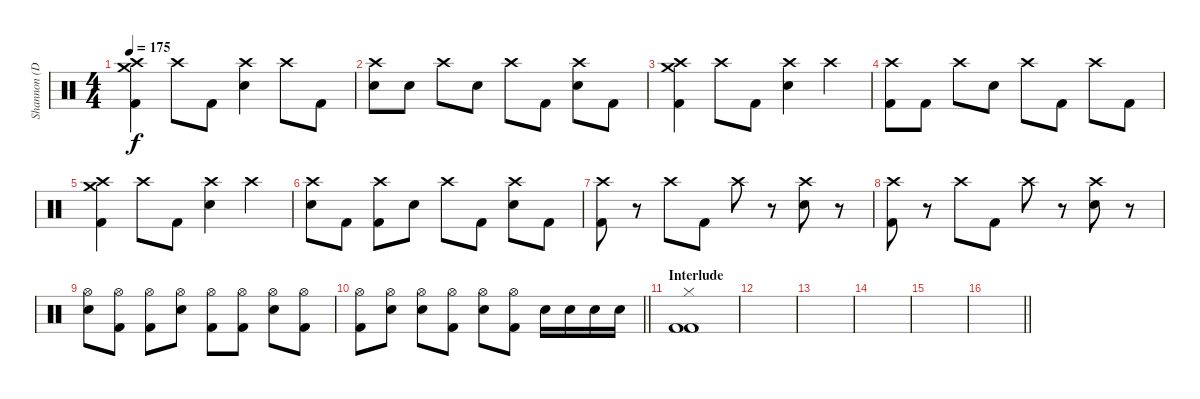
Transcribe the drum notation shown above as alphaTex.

\track ("Shannon (Drum)" "Shannon (D") {instrument percussion}
\staff {score}
\articulation defaults
\ts (4 4)
\tempo 175
\clef neutral
\ks c
("Crash high (hit)" "Crash medium (hit)" "Kick (hit) 2").4{dy f} "Crash high (hit)".8 "Kick (hit) 2".8 ("Crash high (hit)" "Electric Snare (hit)").4 "Crash high (hit)".8 "Kick (hit) 2".8 |
("Crash high (hit)" "Electric Snare (hit)").8 "Electric Snare (hit)".8 "Crash high (hit)".8 "Electric Snare (hit)".8 "Crash high (hit)".8 "Kick (hit) 2".8 ("Crash high (hit)" "Electric Snare (hit)").8 "Kick (hit) 2".8 |
("Crash high (hit)" "Crash medium (hit)" "Kick (hit) 2").4 "Crash high (hit)".8 "Kick (hit) 2".8 ("Crash high (hit)" "Electric Snare (hit)").4 "Crash high (hit)".4 |
("Crash high (hit)" "Kick (hit) 2").8 "Kick (hit) 2".8 "Crash high (hit)".8 "Electric Snare (hit)".8 "Crash high (hit)".8 "Kick (hit) 2".8 "Crash high (hit)".8 "Kick (hit) 2".8 |
("Crash high (hit)" "Crash medium (hit)" "Kick (hit) 2").4 "Crash high (hit)".8 "Kick (hit) 2".8 ("Crash high (hit)" "Electric Snare (hit)").4 "Crash high (hit)".4 |
("Crash high (hit)" "Electric Snare (hit)").8 "Kick (hit) 2".8 ("Crash high (hit)" "Kick (hit) 2").8 "Electric Snare (hit)".8 "Crash high (hit)".8 "Kick (hit) 2".8 ("Crash high (hit)" "Electric Snare (hit)").8 "Kick (hit) 2".8 |
("Crash high (hit)" "Kick (hit) 2").8 r.8 "Crash high (hit)".8 "Kick (hit) 2".8 "Crash high (hit)".8 r.8 ("Crash high (hit)" "Electric Snare (hit)").8 r.8 |
("Crash high (hit)" "Kick (hit) 2").8 r.8 "Crash high (hit)".8 "Kick (hit) 2".8 "Crash high (hit)".8 r.8 ("Crash high (hit)" "Electric Snare (hit)").8 r.8 |
("Hi-Hat (open)" "Electric Snare (hit)").8 ("Hi-Hat (open)" "Kick (hit) 2").8 ("Hi-Hat (open)" "Kick (hit) 2").8 ("Hi-Hat (open)" "Electric Snare (hit)").8 ("Hi-Hat (open)" "Kick (hit) 2").8 ("Hi-Hat (open)" "Kick (hit) 2").8 ("Hi-Hat (open)" "Electric Snare (hit)").8 ("Hi-Hat (open)" "Kick (hit) 2").8 |
\barLineRight lightlight
("Hi-Hat (open)" "Kick (hit) 2").8 ("Hi-Hat (open)" "Electric Snare (hit)").8 ("Hi-Hat (open)" "Electric Snare (hit)").8 ("Hi-Hat (open)" "Kick (hit) 2").8 ("Hi-Hat (open)" "Electric Snare (hit)").8 ("Hi-Hat (open)" "Kick (hit) 2").8 "Electric Snare (hit)".16 "Electric Snare (hit)".16 "Electric Snare (hit)".16 "Electric Snare (hit)".16 |
\section ("" "Interlude")
("Hi-Hat (closed)" "Kick (hit) 2" "Kick (hit) 2").1 |
|
|
|
|
\barLineRight lightlight
